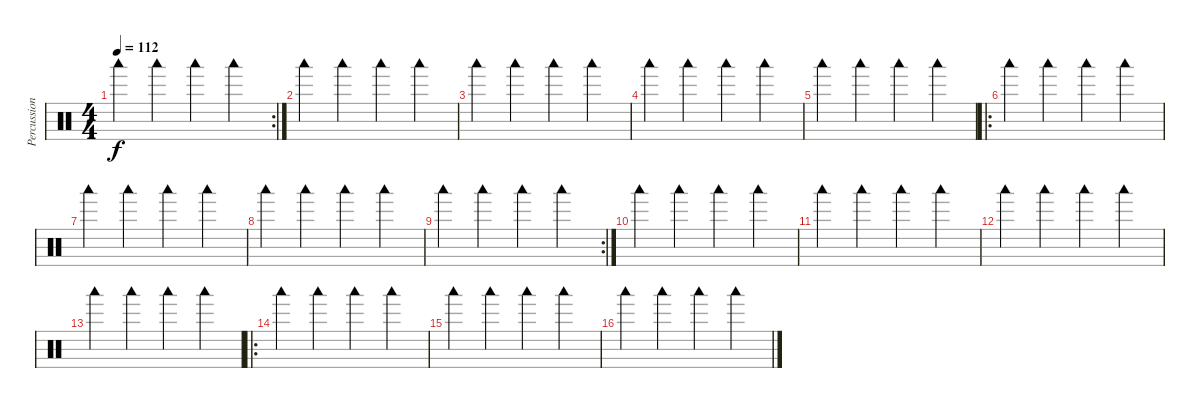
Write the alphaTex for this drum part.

\track ("Percussion" "Percussion") {instrument percussion}
\staff {score}
\articulation defaults
\rc 2
\ts (4 4)
\tempo 112
\clef neutral
\ks c "Woodblock low (hit)".4{dy f} "Woodblock low (hit)".4 "Woodblock low (hit)".4 "Woodblock low (hit)".4
|
"Woodblock low (hit)".4 "Woodblock low (hit)".4 "Woodblock low (hit)".4 "Woodblock low (hit)".4 |
"Woodblock low (hit)".4 "Woodblock low (hit)".4 "Woodblock low (hit)".4 "Woodblock low (hit)".4 |
"Woodblock low (hit)".4 "Woodblock low (hit)".4 "Woodblock low (hit)".4 "Woodblock low (hit)".4 |
"Woodblock low (hit)".4 "Woodblock low (hit)".4 "Woodblock low (hit)".4 "Woodblock low (hit)".4 |
\ro "Woodblock low (hit)".4 "Woodblock low (hit)".4 "Woodblock low (hit)".4 "Woodblock low (hit)".4
|
"Woodblock low (hit)".4 "Woodblock low (hit)".4 "Woodblock low (hit)".4 "Woodblock low (hit)".4 |
"Woodblock low (hit)".4 "Woodblock low (hit)".4 "Woodblock low (hit)".4 "Woodblock low (hit)".4 |
\rc 2 "Woodblock low (hit)".4 "Woodblock low (hit)".4 "Woodblock low (hit)".4 "Woodblock low (hit)".4
|
"Woodblock low (hit)".4 "Woodblock low (hit)".4 "Woodblock low (hit)".4 "Woodblock low (hit)".4 |
"Woodblock low (hit)".4 "Woodblock low (hit)".4 "Woodblock low (hit)".4 "Woodblock low (hit)".4 |
"Woodblock low (hit)".4 "Woodblock low (hit)".4 "Woodblock low (hit)".4 "Woodblock low (hit)".4 |
"Woodblock low (hit)".4 "Woodblock low (hit)".4 "Woodblock low (hit)".4 "Woodblock low (hit)".4 |
\ro "Woodblock low (hit)".4 "Woodblock low (hit)".4 "Woodblock low (hit)".4 "Woodblock low (hit)".4
|
"Woodblock low (hit)".4 "Woodblock low (hit)".4 "Woodblock low (hit)".4 "Woodblock low (hit)".4 |
"Woodblock low (hit)".4 "Woodblock low (hit)".4 "Woodblock low (hit)".4 "Woodblock low (hit)".4
